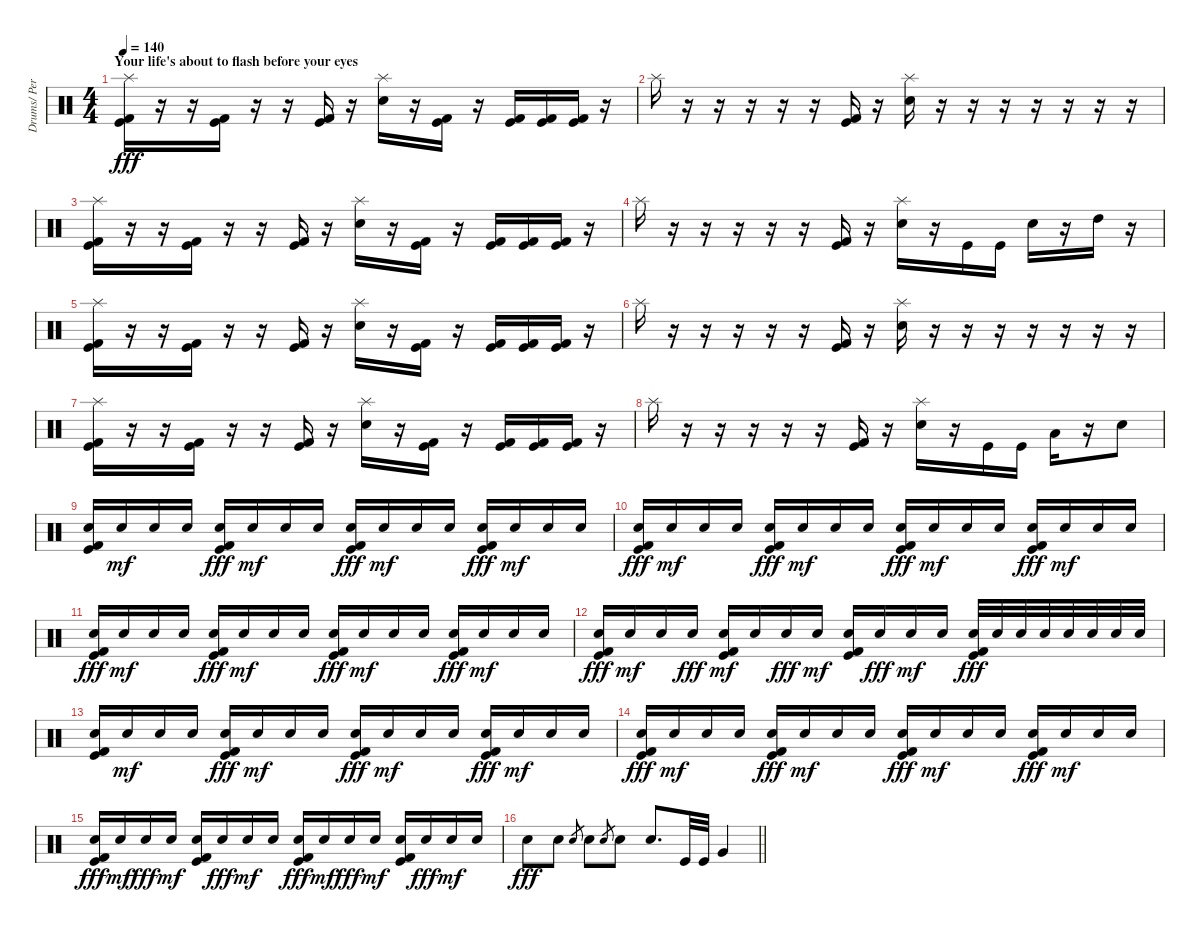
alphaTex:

\track ("Drums/ Percussion- Rob" "Drums/ Per") {instrument percussion}
\staff {score}
\articulation defaults
\ts (4 4)
\section ("" "Your life's about to flash before your eyes")
\tempo 140
\clef neutral
\ks c
("Splash (hit)" "Kick (hit) 2" "Kick (hit)").16{dy fff} r.16 r.16 ("Kick (hit) 2" "Kick (hit)").16 r.16 r.16 ("Kick (hit) 2" "Kick (hit)").16 r.16 ("Splash (hit)" "Snare (hit) 2").16 r.16 ("Kick (hit) 2" "Kick (hit)").16 r.16 ("Kick (hit) 2" "Kick (hit)").16 ("Kick (hit) 2" "Kick (hit)").16 ("Kick (hit) 2" "Kick (hit)").16 r.16 |
"Splash (hit)".16 r.16 r.16 r.16 r.16 r.16 ("Kick (hit) 2" "Kick (hit)").16 r.16 ("Splash (hit)" "Snare (hit) 2").16 r.16 r.16 r.16 r.16 r.16 r.16 r.16 |
("Splash (hit)" "Kick (hit) 2" "Kick (hit)").16 r.16 r.16 ("Kick (hit) 2" "Kick (hit)").16 r.16 r.16 ("Kick (hit) 2" "Kick (hit)").16 r.16 ("Splash (hit)" "Snare (hit) 2").16 r.16 ("Kick (hit) 2" "Kick (hit)").16 r.16 ("Kick (hit) 2" "Kick (hit)").16 ("Kick (hit) 2" "Kick (hit)").16 ("Kick (hit) 2" "Kick (hit)").16 r.16 |
"Splash (hit)".16 r.16 r.16 r.16 r.16 r.16 ("Kick (hit) 2" "Kick (hit)").16 r.16 ("Splash (hit)" "Snare (hit) 2").16 r.16 "Kick (hit)".16 "Kick (hit)".16 "Snare (hit) 2".16 r.16 "High Tom (hit)".16 r.16 |
("Splash (hit)" "Kick (hit) 2" "Kick (hit)").16 r.16 r.16 ("Kick (hit) 2" "Kick (hit)").16 r.16 r.16 ("Kick (hit) 2" "Kick (hit)").16 r.16 ("Splash (hit)" "Snare (hit) 2").16 r.16 ("Kick (hit) 2" "Kick (hit)").16 r.16 ("Kick (hit) 2" "Kick (hit)").16 ("Kick (hit) 2" "Kick (hit)").16 ("Kick (hit) 2" "Kick (hit)").16 r.16 |
"Splash (hit)".16 r.16 r.16 r.16 r.16 r.16 ("Kick (hit) 2" "Kick (hit)").16 r.16 ("Splash (hit)" "Snare (hit) 2").16 r.16 r.16 r.16 r.16 r.16 r.16 r.16 |
("Splash (hit)" "Kick (hit) 2" "Kick (hit)").16 r.16 r.16 ("Kick (hit) 2" "Kick (hit)").16 r.16 r.16 ("Kick (hit) 2" "Kick (hit)").16 r.16 ("Splash (hit)" "Snare (hit) 2").16 r.16 ("Kick (hit) 2" "Kick (hit)").16 r.16 ("Kick (hit) 2" "Kick (hit)").16 ("Kick (hit) 2" "Kick (hit)").16 ("Kick (hit) 2" "Kick (hit)").16 r.16 |
"Splash (hit)".16 r.16 r.16 r.16 r.16 r.16 ("Kick (hit) 2" "Kick (hit)").16 r.16 ("Splash (hit)" "Snare (hit) 2").16 r.16 "Kick (hit)".16 "Kick (hit)".16 "Low Floor Tom (hit)".16 r.16 "Snare (hit) 2".8 |
("Kick (hit)" "Kick (hit) 2" "Snare (hit) 2").16 "Snare (hit) 2".16{dy mf} "Snare (hit) 2".16 "Snare (hit) 2".16 ("Kick (hit)" "Kick (hit) 2" "Snare (hit) 2").16{dy fff} "Snare (hit) 2".16{dy mf} "Snare (hit) 2".16 "Snare (hit) 2".16 ("Kick (hit)" "Kick (hit) 2" "Snare (hit) 2").16{dy fff} "Snare (hit) 2".16{dy mf} "Snare (hit) 2".16 "Snare (hit) 2".16 ("Kick (hit)" "Kick (hit) 2" "Snare (hit) 2").16{dy fff} "Snare (hit) 2".16{dy mf} "Snare (hit) 2".16 "Snare (hit) 2".16 |
("Kick (hit)" "Kick (hit) 2" "Snare (hit) 2").16{dy fff} "Snare (hit) 2".16{dy mf} "Snare (hit) 2".16 "Snare (hit) 2".16 ("Kick (hit)" "Kick (hit) 2" "Snare (hit) 2").16{dy fff} "Snare (hit) 2".16{dy mf} "Snare (hit) 2".16 "Snare (hit) 2".16 ("Kick (hit)" "Kick (hit) 2" "Snare (hit) 2").16{dy fff} "Snare (hit) 2".16{dy mf} "Snare (hit) 2".16 "Snare (hit) 2".16 ("Kick (hit)" "Kick (hit) 2" "Snare (hit) 2").16{dy fff} "Snare (hit) 2".16{dy mf} "Snare (hit) 2".16 "Snare (hit) 2".16 |
("Kick (hit)" "Kick (hit) 2" "Snare (hit) 2").16{dy fff} "Snare (hit) 2".16{dy mf} "Snare (hit) 2".16 "Snare (hit) 2".16 ("Kick (hit)" "Kick (hit) 2" "Snare (hit) 2").16{dy fff} "Snare (hit) 2".16{dy mf} "Snare (hit) 2".16 "Snare (hit) 2".16 ("Kick (hit)" "Kick (hit) 2" "Snare (hit) 2").16{dy fff} "Snare (hit) 2".16{dy mf} "Snare (hit) 2".16 "Snare (hit) 2".16 ("Kick (hit)" "Kick (hit) 2" "Snare (hit) 2").16{dy fff} "Snare (hit) 2".16{dy mf} "Snare (hit) 2".16 "Snare (hit) 2".16 |
("Kick (hit)" "Kick (hit) 2" "Snare (hit) 2").16{dy fff} "Snare (hit) 2".16{dy mf} "Snare (hit) 2".16 "Snare (hit) 2".16{dy fff} ("Kick (hit)" "Kick (hit) 2" "Snare (hit) 2").16{dy mf} "Snare (hit) 2".16 "Snare (hit) 2".16{dy fff} "Snare (hit) 2".16{dy mf} ("Kick (hit)" "Kick (hit) 2" "Snare (hit) 2").16 "Snare (hit) 2".16{dy fff} "Snare (hit) 2".16{dy mf} "Snare (hit) 2".16 ("Kick (hit)" "Kick (hit) 2" "Snare (hit) 2").32{dy fff} "Snare (hit) 2".32 "Snare (hit) 2".32 "Snare (hit) 2".32 "Snare (hit) 2".32 "Snare (hit) 2".32 "Snare (hit) 2".32 "Snare (hit) 2".32 |
("Kick (hit)" "Kick (hit) 2" "Snare (hit) 2").16 "Snare (hit) 2".16{dy mf} "Snare (hit) 2".16 "Snare (hit) 2".16 ("Kick (hit)" "Kick (hit) 2" "Snare (hit) 2").16{dy fff} "Snare (hit) 2".16{dy mf} "Snare (hit) 2".16 "Snare (hit) 2".16 ("Kick (hit)" "Kick (hit) 2" "Snare (hit) 2").16{dy fff} "Snare (hit) 2".16{dy mf} "Snare (hit) 2".16 "Snare (hit) 2".16 ("Kick (hit)" "Kick (hit) 2" "Snare (hit) 2").16{dy fff} "Snare (hit) 2".16{dy mf} "Snare (hit) 2".16 "Snare (hit) 2".16 |
("Kick (hit)" "Kick (hit) 2" "Snare (hit) 2").16{dy fff} "Snare (hit) 2".16{dy mf} "Snare (hit) 2".16 "Snare (hit) 2".16 ("Kick (hit)" "Kick (hit) 2" "Snare (hit) 2").16{dy fff} "Snare (hit) 2".16{dy mf} "Snare (hit) 2".16 "Snare (hit) 2".16 ("Kick (hit)" "Kick (hit) 2" "Snare (hit) 2").16{dy fff} "Snare (hit) 2".16{dy mf} "Snare (hit) 2".16 "Snare (hit) 2".16 ("Kick (hit)" "Kick (hit) 2" "Snare (hit) 2").16{dy fff} "Snare (hit) 2".16{dy mf} "Snare (hit) 2".16 "Snare (hit) 2".16 |
("Kick (hit)" "Kick (hit) 2" "Snare (hit) 2").16{dy fff} "Snare (hit) 2".16{dy mf} "Snare (hit) 2".16{dy fff} "Snare (hit) 2".16{dy mf} ("Kick (hit)" "Kick (hit) 2" "Snare (hit) 2").16 "Snare (hit) 2".16{dy fff} "Snare (hit) 2".16{dy mf} "Snare (hit) 2".16 ("Kick (hit)" "Kick (hit) 2" "Snare (hit) 2").16{dy fff} "Snare (hit) 2".16{dy mf} "Snare (hit) 2".16{dy fff} "Snare (hit) 2".16{dy mf} ("Kick (hit)" "Kick (hit) 2" "Snare (hit) 2").16 "Snare (hit) 2".16{dy fff} "Snare (hit) 2".16{dy mf} "Snare (hit) 2".16 |
\barLineRight lightlight "Snare (hit) 2".8{dy fff} "Snare (hit) 2".8 "Snare (hit) 2".8{gr} "Snare (hit) 2".8 "Snare (hit) 2".8{gr} "Snare (hit) 2".8 "Snare (hit) 2".8{d} "Kick (hit)".32 "Kick (hit)".32 "Very Low Tom (hit)".4
